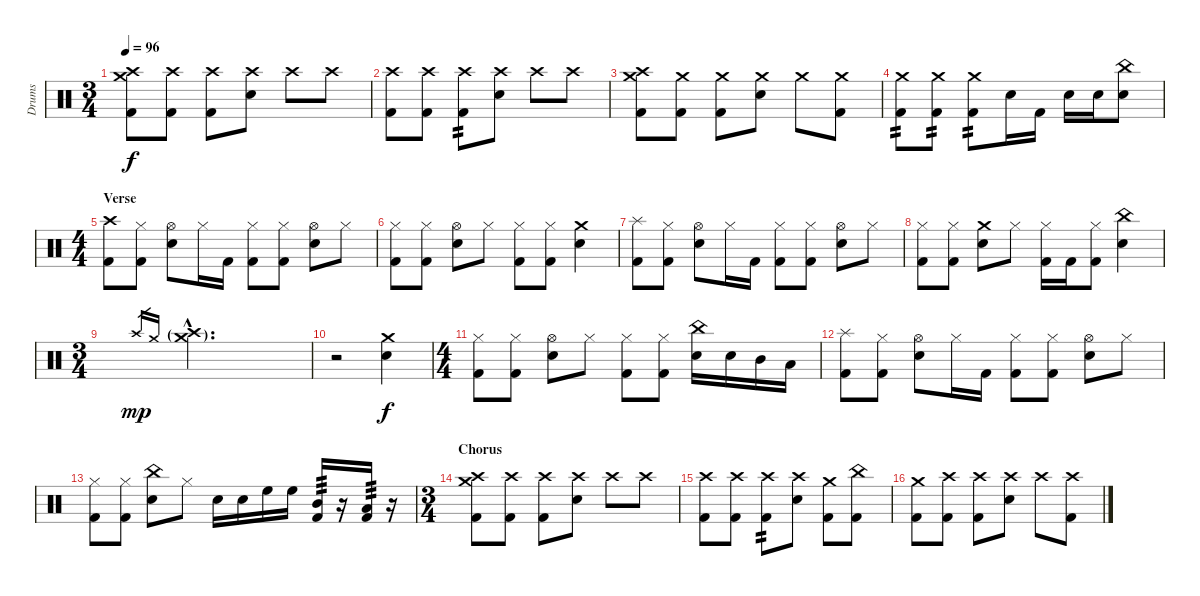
\track ("Drums" "Drums") {instrument percussion}
\staff {score}
\articulation defaults
\ts (3 4)
\tempo 96
\clef neutral
\ks c
("Crash high (hit)" "Crash medium (hit)" "Kick (hit) 2").8{dy f} ("Crash high (hit)" "Kick (hit) 2").8 ("Crash high (hit)" "Kick (hit) 2").8 ("Crash high (hit)" "Snare (hit) 2").8 "Crash high (hit)".8 "Crash high (hit)".8 |
("Crash high (hit)" "Kick (hit) 2").8 ("Crash high (hit)" "Kick (hit) 2").8 ("Crash high (hit)" "Kick (hit) 2").8{tp 2} ("Crash high (hit)" "Snare (hit) 2").8 "Crash high (hit)".8 "Crash high (hit)".8 |
("Crash medium (hit)" "Crash high (hit)" "Kick (hit) 2").8 ("Crash medium (hit)" "Kick (hit) 2").8 ("Crash medium (hit)" "Kick (hit) 2").8 ("Crash medium (hit)" "Snare (hit) 2").8 "Crash medium (hit)".8 ("Crash medium (hit)" "Kick (hit) 2").8 |
("Crash medium (hit)" "Kick (hit) 2").8{tp 2} ("Crash medium (hit)" "Kick (hit) 2").8{tp 2} ("Crash medium (hit)" "Kick (hit) 2").8{tp 2} "Snare (hit) 2".16 "Kick (hit) 2".16 "Snare (hit) 2".16 "Snare (hit) 2".16 ("China (hit)" "Snare (hit) 2").8 |
\ts (4 4)
\section ("" "Verse")
("Crash high (hit)" "Kick (hit) 2").8 ("Hi-Hat (closed)" "Kick (hit) 2").8 ("Hi-Hat (open)" "Snare (hit) 2").8 "Hi-Hat (closed)".16 "Kick (hit) 2".16 ("Hi-Hat (closed)" "Kick (hit) 2").8 ("Hi-Hat (closed)" "Kick (hit) 2").8 ("Hi-Hat (open)" "Snare (hit) 2").8 "Hi-Hat (closed)".8 |
("Hi-Hat (closed)" "Kick (hit) 2").8 ("Hi-Hat (closed)" "Kick (hit) 2").8 ("Hi-Hat (open)" "Snare (hit) 2").8 "Hi-Hat (closed)".8 ("Hi-Hat (closed)" "Kick (hit) 2").8 ("Hi-Hat (closed)" "Kick (hit) 2").8 ("Crash medium (hit)" "Snare (hit) 2").4 |
("Splash (hit)" "Kick (hit) 2").8 ("Hi-Hat (closed)" "Kick (hit) 2").8 ("Hi-Hat (open)" "Snare (hit) 2").8 "Hi-Hat (closed)".16 "Kick (hit) 2".16 ("Hi-Hat (closed)" "Kick (hit) 2").8 ("Hi-Hat (closed)" "Kick (hit) 2").8 ("Hi-Hat (open)" "Snare (hit) 2").8 "Hi-Hat (closed)".8 |
("Hi-Hat (closed)" "Kick (hit) 2").8 ("Hi-Hat (closed)" "Kick (hit) 2").8 ("Crash medium (hit)" "Snare (hit) 2").8 "Hi-Hat (closed)".8 ("Hi-Hat (closed)" "Kick (hit) 2").16 "Kick (hit) 2".16 ("Hi-Hat (closed)" "Kick (hit) 2").8 ("China (hit)" "Snare (hit) 2").4 |
\ts (3 4)
"Crash high (hit)".16{gr dy mp} "Crash medium (hit)".16{gr} ("Crash high (hit)"{g hac} "Crash medium (hit)"{g hac}).2{d} |
r.2 ("Crash medium (hit)" "Snare (hit) 2").4{dy f} |
\ts (4 4)
("Hi-Hat (closed)" "Kick (hit) 2").8 ("Hi-Hat (closed)" "Kick (hit) 2").8 ("Hi-Hat (open)" "Snare (hit) 2").8 "Hi-Hat (closed)".8 ("Hi-Hat (closed)" "Kick (hit) 2").8 ("Hi-Hat (closed)" "Kick (hit) 2").8 ("China (hit)" "Snare (hit) 2").16 "Snare (hit) 2".16 "Mid Tom (hit)".16 "Low Tom (hit)".16 |
("Splash (hit)" "Kick (hit) 2").8 ("Hi-Hat (closed)" "Kick (hit) 2").8 ("Hi-Hat (open)" "Snare (hit) 2").8 "Hi-Hat (closed)".16 "Kick (hit) 2".16 ("Hi-Hat (closed)" "Kick (hit) 2").8 ("Hi-Hat (closed)" "Kick (hit) 2").8 ("Hi-Hat (open)" "Snare (hit) 2").8 "Hi-Hat (closed)".8 |
("Hi-Hat (closed)" "Kick (hit) 2").8 ("Hi-Hat (closed)" "Kick (hit) 2").8 ("China (hit)" "Snare (hit) 2").8 "Hi-Hat (closed)".8 "Snare (hit) 2".16 "Snare (hit) 2".16 "High Floor Tom (hit)".16 "High Floor Tom (hit)".16 ("Mid Tom (hit)" "Kick (hit) 2").16{tp 3} r.16 ("Low Tom (hit)" "Kick (hit) 2").16{tp 3} r.16 |
\ts (3 4)
\section ("" "Chorus")
("Crash high (hit)" "Crash medium (hit)" "Kick (hit) 2").8 ("Crash high (hit)" "Kick (hit) 2").8 ("Crash high (hit)" "Kick (hit) 2").8 ("Crash high (hit)" "Snare (hit) 2").8 "Crash high (hit)".8 "Crash high (hit)".8 |
("Crash high (hit)" "Kick (hit) 2").8 ("Crash high (hit)" "Kick (hit) 2").8 ("Crash high (hit)" "Kick (hit) 2").8{tp 2} ("Crash high (hit)" "Snare (hit) 2").8 ("Crash medium (hit)" "Kick (hit) 2").8 ("China (hit)" "Kick (hit) 2").8 |
("Crash medium (hit)" "Kick (hit) 2").8 ("Crash high (hit)" "Kick (hit) 2").8 ("Crash high (hit)" "Kick (hit) 2").8 ("Crash high (hit)" "Snare (hit) 2").8 "Crash high (hit)".8 ("Crash high (hit)" "Kick (hit) 2").8
